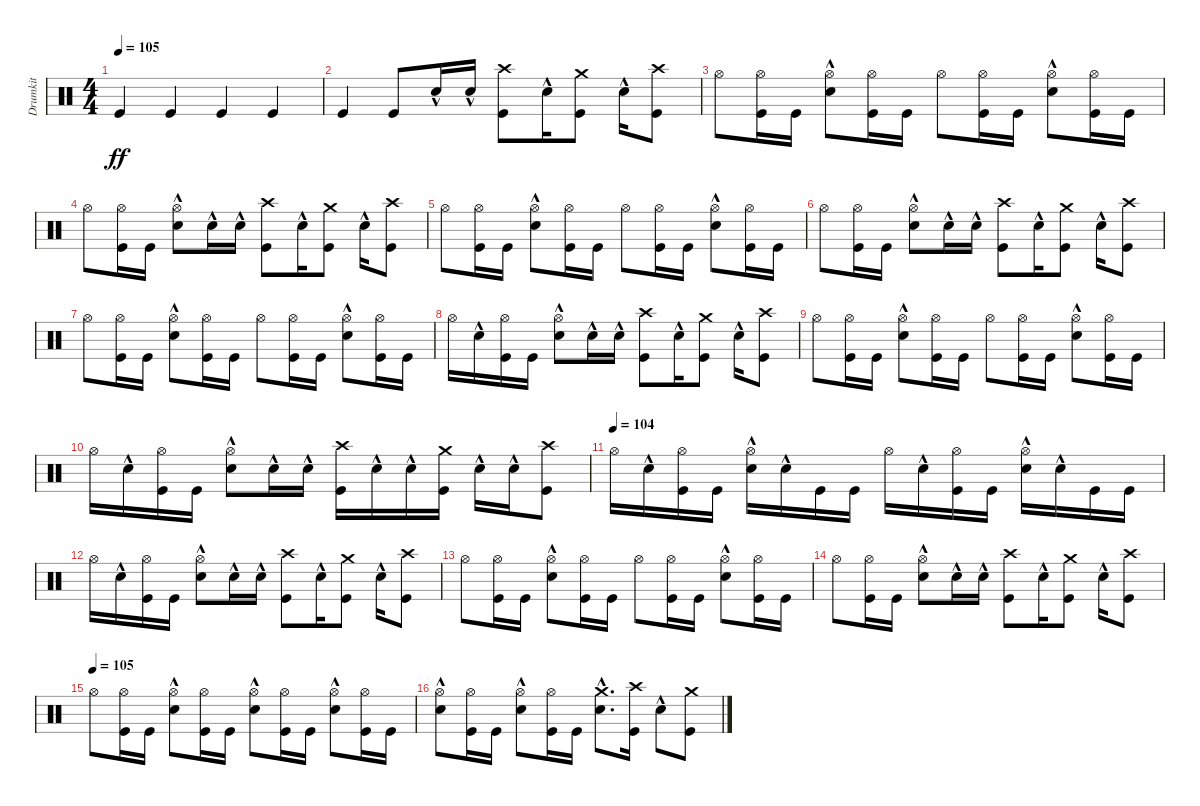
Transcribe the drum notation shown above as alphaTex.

\track ("Drumkit" "Drumkit") {instrument percussion}
\staff {score}
\articulation defaults
\ts (4 4)
\tempo 105
\clef neutral
\ks c "Kick (hit)".4{dy ff} "Kick (hit)".4 "Kick (hit)".4 "Kick (hit)".4
|
\ks aminor "Kick (hit)".4 "Kick (hit)".8 "Snare (hit) 2"{hac}.16 "Snare (hit) 2"{hac}.16
("Kick (hit)" "Crash high (hit)").8 "Snare (hit) 2"{hac}.16 ("Kick (hit)" "Crash medium (hit)").8 "Snare (hit) 2"{hac}.16 ("Kick (hit)" "Crash high (hit)").8 |
"Hi-Hat (open)".8 ("Kick (hit)" "Hi-Hat (open)").16 "Kick (hit)".16 ("Snare (hit) 2"{hac} "Hi-Hat (open)").8 ("Kick (hit)" "Hi-Hat (open)").16 "Kick (hit)".16 "Hi-Hat (open)".8 ("Kick (hit)" "Hi-Hat (open)").16 "Kick (hit)".16 ("Snare (hit) 2"{hac} "Hi-Hat (open)").8 ("Kick (hit)" "Hi-Hat (open)").16 "Kick (hit)".16 |
\ks c "Hi-Hat (open)".8
("Kick (hit)" "Hi-Hat (open)").16 "Kick (hit)".16 ("Snare (hit) 2"{hac} "Hi-Hat (open)").8 "Snare (hit) 2"{hac}.16 "Snare (hit) 2"{hac}.16 ("Kick (hit)" "Crash high (hit)").8 "Snare (hit) 2"{hac}.16 ("Kick (hit)" "Crash medium (hit)").8 "Snare (hit) 2"{hac}.16 ("Kick (hit)" "Crash high (hit)").8 |
"Hi-Hat (open)".8 ("Kick (hit)" "Hi-Hat (open)").16 "Kick (hit)".16 ("Snare (hit) 2"{hac} "Hi-Hat (open)").8 ("Kick (hit)" "Hi-Hat (open)").16 "Kick (hit)".16 "Hi-Hat (open)".8 ("Kick (hit)" "Hi-Hat (open)").16 "Kick (hit)".16 ("Snare (hit) 2"{hac} "Hi-Hat (open)").8 ("Kick (hit)" "Hi-Hat (open)").16 "Kick (hit)".16 |
\ks aminor "Hi-Hat (open)".8
("Kick (hit)" "Hi-Hat (open)").16 "Kick (hit)".16 ("Snare (hit) 2"{hac} "Hi-Hat (open)").8 "Snare (hit) 2"{hac}.16 "Snare (hit) 2"{hac}.16 ("Kick (hit)" "Crash high (hit)").8 "Snare (hit) 2"{hac}.16 ("Kick (hit)" "Crash medium (hit)").8 "Snare (hit) 2"{hac}.16 ("Kick (hit)" "Crash high (hit)").8 |
"Hi-Hat (open)".8 ("Kick (hit)" "Hi-Hat (open)").16 "Kick (hit)".16 ("Snare (hit) 2"{hac} "Hi-Hat (open)").8 ("Kick (hit)" "Hi-Hat (open)").16 "Kick (hit)".16 "Hi-Hat (open)".8 ("Kick (hit)" "Hi-Hat (open)").16 "Kick (hit)".16 ("Snare (hit) 2"{hac} "Hi-Hat (open)").8 ("Kick (hit)" "Hi-Hat (open)").16 "Kick (hit)".16 |
\ks c "Hi-Hat (open)".16 "Snare (hit) 2"{hac}.16
("Kick (hit)" "Hi-Hat (open)").16 "Kick (hit)".16 ("Snare (hit) 2"{hac} "Hi-Hat (open)").8 "Snare (hit) 2"{hac}.16 "Snare (hit) 2"{hac}.16 ("Kick (hit)" "Crash high (hit)").8 "Snare (hit) 2"{hac}.16 ("Kick (hit)" "Crash medium (hit)").8 "Snare (hit) 2"{hac}.16 ("Kick (hit)" "Crash high (hit)").8 |
"Hi-Hat (open)".8 ("Kick (hit)" "Hi-Hat (open)").16 "Kick (hit)".16 ("Snare (hit) 2"{hac} "Hi-Hat (open)").8 ("Kick (hit)" "Hi-Hat (open)").16 "Kick (hit)".16 "Hi-Hat (open)".8 ("Kick (hit)" "Hi-Hat (open)").16 "Kick (hit)".16 ("Snare (hit) 2"{hac} "Hi-Hat (open)").8 ("Kick (hit)" "Hi-Hat (open)").16 "Kick (hit)".16 |
\ks aminor "Hi-Hat (open)".16 "Snare (hit) 2"{hac}.16
("Kick (hit)" "Hi-Hat (open)").16 "Kick (hit)".16 ("Snare (hit) 2"{hac} "Hi-Hat (open)").8 "Snare (hit) 2"{hac}.16 "Snare (hit) 2"{hac}.16 ("Kick (hit)" "Crash high (hit)").16 "Snare (hit) 2"{hac}.16 "Snare (hit) 2"{hac}.16 ("Kick (hit)" "Crash medium (hit)").16 "Snare (hit) 2"{hac}.16 "Snare (hit) 2"{hac}.16 ("Kick (hit)" "Crash high (hit)").8 |
\tempo (104)
"Hi-Hat (open)".16 "Snare (hit) 2"{hac}.16 ("Kick (hit)" "Hi-Hat (open)").16 "Kick (hit)".16 ("Snare (hit) 2"{hac} "Hi-Hat (open)").16 "Snare (hit) 2"{hac}.16 "Kick (hit)".16 "Kick (hit)".16 "Hi-Hat (open)".16 "Snare (hit) 2"{hac}.16 ("Kick (hit)" "Hi-Hat (open)").16 "Kick (hit)".16 ("Snare (hit) 2"{hac} "Hi-Hat (open)").16 "Snare (hit) 2"{hac}.16 "Kick (hit)".16 "Kick (hit)".16 |
\ks c "Hi-Hat (open)".16 "Snare (hit) 2"{hac}.16
("Kick (hit)" "Hi-Hat (open)").16 "Kick (hit)".16 ("Snare (hit) 2"{hac} "Hi-Hat (open)").8 "Snare (hit) 2"{hac}.16 "Snare (hit) 2"{hac}.16 ("Kick (hit)" "Crash high (hit)").8 "Snare (hit) 2"{hac}.16 ("Kick (hit)" "Crash medium (hit)").8 "Snare (hit) 2"{hac}.16 ("Kick (hit)" "Crash high (hit)").8 |
"Hi-Hat (open)".8 ("Kick (hit)" "Hi-Hat (open)").16 "Kick (hit)".16 ("Snare (hit) 2"{hac} "Hi-Hat (open)").8 ("Kick (hit)" "Hi-Hat (open)").16 "Kick (hit)".16 "Hi-Hat (open)".8 ("Kick (hit)" "Hi-Hat (open)").16 "Kick (hit)".16 ("Snare (hit) 2"{hac} "Hi-Hat (open)").8 ("Kick (hit)" "Hi-Hat (open)").16 "Kick (hit)".16 |
\ks aminor "Hi-Hat (open)".8
("Kick (hit)" "Hi-Hat (open)").16 "Kick (hit)".16 ("Snare (hit) 2"{hac} "Hi-Hat (open)").8 "Snare (hit) 2"{hac}.16 "Snare (hit) 2"{hac}.16 ("Kick (hit)" "Crash high (hit)").8 "Snare (hit) 2"{hac}.16 ("Kick (hit)" "Crash medium (hit)").8 "Snare (hit) 2"{hac}.16 ("Kick (hit)" "Crash high (hit)").8 |
\tempo (105)
"Hi-Hat (open)".8 ("Kick (hit)" "Hi-Hat (open)").16 "Kick (hit)".16 ("Snare (hit) 2"{hac} "Hi-Hat (open)").8 ("Kick (hit)" "Hi-Hat (open)").16 "Kick (hit)".16 ("Hi-Hat (open)" "Snare (hit) 2"{hac}).8 ("Kick (hit)" "Hi-Hat (open)").16 "Kick (hit)".16 ("Snare (hit) 2"{hac} "Hi-Hat (open)").8 ("Kick (hit)" "Hi-Hat (open)").16 "Kick (hit)".16 |
\ks c
("Snare (hit) 2"{hac} "Hi-Hat (open)").8 ("Kick (hit)" "Hi-Hat (open)").16 "Kick (hit)".16 ("Snare (hit) 2"{hac} "Hi-Hat (open)").8 ("Kick (hit)" "Hi-Hat (open)").16 "Kick (hit)".16 ("Snare (hit) 2"{hac} "Crash medium (hit)").8{d} ("Kick (hit)" "Crash high (hit)").16 "Snare (hit) 2"{hac}.8 ("Kick (hit)" "Crash medium (hit)").8
